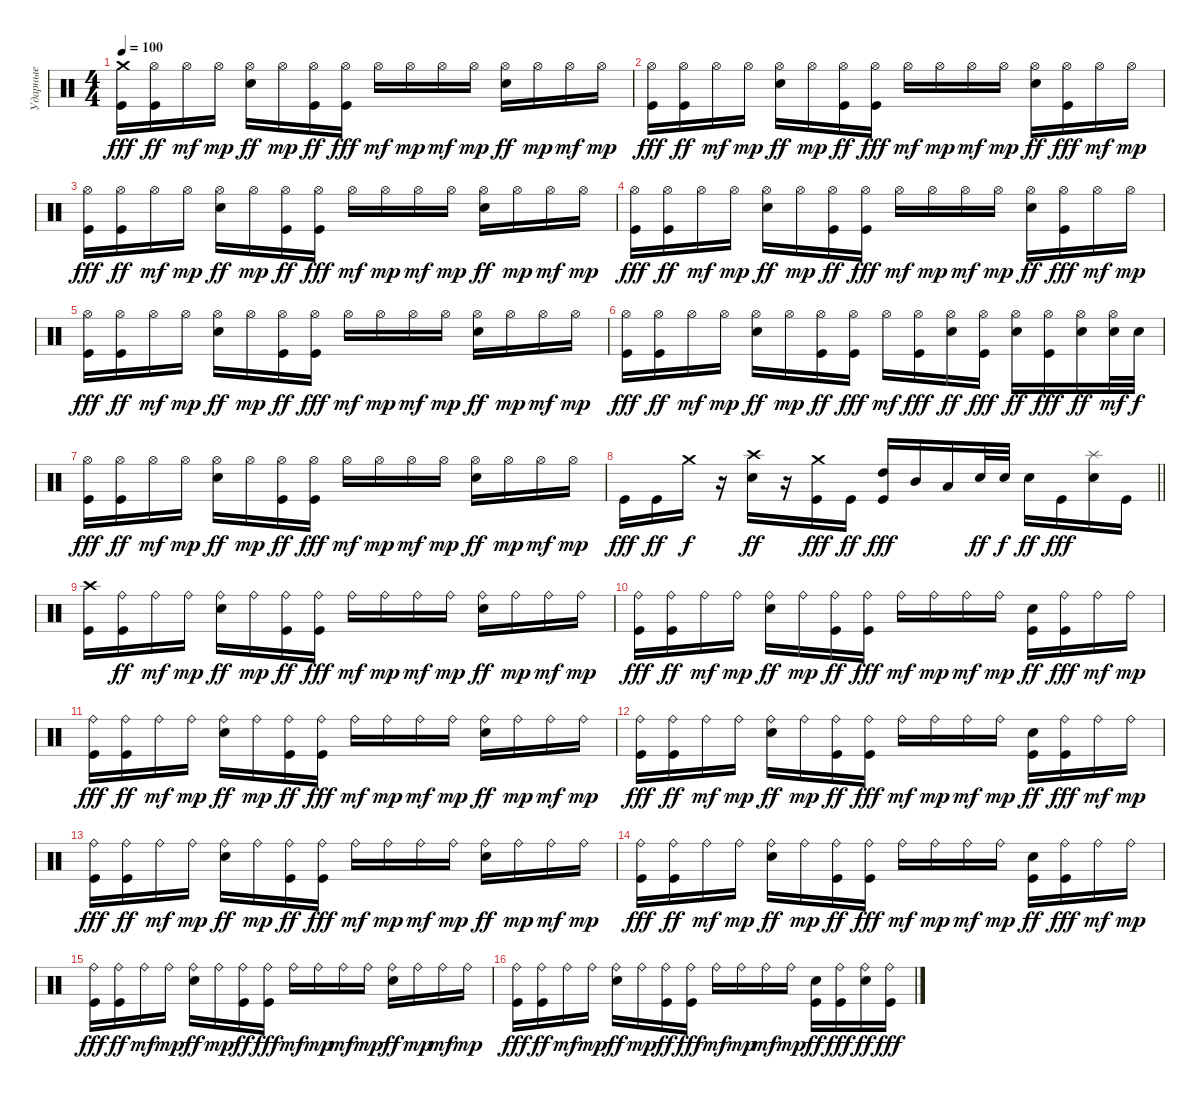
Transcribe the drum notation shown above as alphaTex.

\track ("Ударные" "Ударные") {instrument percussion}
\staff {score}
\articulation defaults
\ts (4 4)
\tempo 100
\clef neutral
\ks c
("Crash medium (hit)" "Kick (hit)").16{dy fff} ("Hi-Hat (open)" "Kick (hit)").16{dy ff} "Hi-Hat (open)".16{dy mf} "Hi-Hat (open)".16{dy mp} ("Hi-Hat (open)" "Electric Snare (hit)").16{dy ff} "Hi-Hat (open)".16{dy mp} ("Hi-Hat (open)" "Kick (hit)").16{dy ff} ("Hi-Hat (open)" "Kick (hit)").16{dy fff} "Hi-Hat (open)".16{dy mf} "Hi-Hat (open)".16{dy mp} "Hi-Hat (open)".16{dy mf} "Hi-Hat (open)".16{dy mp} ("Hi-Hat (open)" "Electric Snare (hit)").16{dy ff} "Hi-Hat (open)".16{dy mp} "Hi-Hat (open)".16{dy mf} "Hi-Hat (open)".16{dy mp} |
("Hi-Hat (open)" "Kick (hit)").16{dy fff} ("Hi-Hat (open)" "Kick (hit)").16{dy ff} "Hi-Hat (open)".16{dy mf} "Hi-Hat (open)".16{dy mp} ("Hi-Hat (open)" "Electric Snare (hit)").16{dy ff} "Hi-Hat (open)".16{dy mp} ("Hi-Hat (open)" "Kick (hit)").16{dy ff} ("Hi-Hat (open)" "Kick (hit)").16{dy fff} "Hi-Hat (open)".16{dy mf} "Hi-Hat (open)".16{dy mp} "Hi-Hat (open)".16{dy mf} "Hi-Hat (open)".16{dy mp} ("Hi-Hat (open)" "Electric Snare (hit)").16{dy ff} ("Hi-Hat (open)" "Kick (hit)").16{dy fff} "Hi-Hat (open)".16{dy mf} "Hi-Hat (open)".16{dy mp} |
("Hi-Hat (open)" "Kick (hit)").16{dy fff} ("Hi-Hat (open)" "Kick (hit)").16{dy ff} "Hi-Hat (open)".16{dy mf} "Hi-Hat (open)".16{dy mp} ("Hi-Hat (open)" "Electric Snare (hit)").16{dy ff} "Hi-Hat (open)".16{dy mp} ("Hi-Hat (open)" "Kick (hit)").16{dy ff} ("Hi-Hat (open)" "Kick (hit)").16{dy fff} "Hi-Hat (open)".16{dy mf} "Hi-Hat (open)".16{dy mp} "Hi-Hat (open)".16{dy mf} "Hi-Hat (open)".16{dy mp} ("Hi-Hat (open)" "Electric Snare (hit)").16{dy ff} "Hi-Hat (open)".16{dy mp} "Hi-Hat (open)".16{dy mf} "Hi-Hat (open)".16{dy mp} |
("Hi-Hat (open)" "Kick (hit)").16{dy fff} ("Hi-Hat (open)" "Kick (hit)").16{dy ff} "Hi-Hat (open)".16{dy mf} "Hi-Hat (open)".16{dy mp} ("Hi-Hat (open)" "Electric Snare (hit)").16{dy ff} "Hi-Hat (open)".16{dy mp} ("Hi-Hat (open)" "Kick (hit)").16{dy ff} ("Hi-Hat (open)" "Kick (hit)").16{dy fff} "Hi-Hat (open)".16{dy mf} "Hi-Hat (open)".16{dy mp} "Hi-Hat (open)".16{dy mf} "Hi-Hat (open)".16{dy mp} ("Hi-Hat (open)" "Electric Snare (hit)").16{dy ff} ("Hi-Hat (open)" "Kick (hit)").16{dy fff} "Hi-Hat (open)".16{dy mf} "Hi-Hat (open)".16{dy mp} |
("Hi-Hat (open)" "Kick (hit)").16{dy fff} ("Hi-Hat (open)" "Kick (hit)").16{dy ff} "Hi-Hat (open)".16{dy mf} "Hi-Hat (open)".16{dy mp} ("Hi-Hat (open)" "Electric Snare (hit)").16{dy ff} "Hi-Hat (open)".16{dy mp} ("Hi-Hat (open)" "Kick (hit)").16{dy ff} ("Hi-Hat (open)" "Kick (hit)").16{dy fff} "Hi-Hat (open)".16{dy mf} "Hi-Hat (open)".16{dy mp} "Hi-Hat (open)".16{dy mf} "Hi-Hat (open)".16{dy mp} ("Hi-Hat (open)" "Electric Snare (hit)").16{dy ff} "Hi-Hat (open)".16{dy mp} "Hi-Hat (open)".16{dy mf} "Hi-Hat (open)".16{dy mp} |
("Hi-Hat (open)" "Kick (hit)").16{dy fff} ("Hi-Hat (open)" "Kick (hit)").16{dy ff} "Hi-Hat (open)".16{dy mf} "Hi-Hat (open)".16{dy mp} ("Hi-Hat (open)" "Electric Snare (hit)").16{dy ff} "Hi-Hat (open)".16{dy mp} ("Hi-Hat (open)" "Kick (hit)").16{dy ff} ("Hi-Hat (open)" "Kick (hit)").16{dy fff} "Hi-Hat (open)".16{dy mf} ("Hi-Hat (open)" "Kick (hit)").16{dy fff} ("Hi-Hat (open)" "Electric Snare (hit)").16{dy ff} ("Hi-Hat (open)" "Kick (hit)").16{dy fff} ("Hi-Hat (open)" "Electric Snare (hit)").16{dy ff} ("Hi-Hat (open)" "Kick (hit)").16{dy fff} ("Hi-Hat (open)" "Electric Snare (hit)").16{dy ff} ("Hi-Hat (open)" "Electric Snare (hit)").32{dy mf} "Electric Snare (hit)".32{dy f} |
("Hi-Hat (open)" "Kick (hit)").16{dy fff} ("Hi-Hat (open)" "Kick (hit)").16{dy ff} "Hi-Hat (open)".16{dy mf} "Hi-Hat (open)".16{dy mp} ("Hi-Hat (open)" "Electric Snare (hit)").16{dy ff} "Hi-Hat (open)".16{dy mp} ("Hi-Hat (open)" "Kick (hit)").16{dy ff} ("Hi-Hat (open)" "Kick (hit)").16{dy fff} "Hi-Hat (open)".16{dy mf} "Hi-Hat (open)".16{dy mp} "Hi-Hat (open)".16{dy mf} "Hi-Hat (open)".16{dy mp} ("Hi-Hat (open)" "Electric Snare (hit)").16{dy ff} "Hi-Hat (open)".16{dy mp} "Hi-Hat (open)".16{dy mf} "Hi-Hat (open)".16{dy mp} |
\barLineRight lightlight "Kick (hit)".16{dy fff} "Kick (hit)".16{dy ff} "Crash medium (hit)".16{dy f}
r.16 ("Crash high (hit)" "Electric Snare (hit)").16{dy ff} r.16 ("Crash medium (hit)" "Kick (hit)").16{dy fff} "Kick (hit)".16{dy ff} ("High Tom (hit)" "Kick (hit)").16{dy fff} "Mid Tom (hit)".16 "Low Tom (hit)".16 "Electric Snare (hit)".32{dy ff} "Electric Snare (hit)".32{dy f} "Electric Snare (hit)".16{dy ff} "Kick (hit)".16{dy fff} ("Splash (hit)" "Electric Snare (hit)").16 "Kick (hit)".16 |
\section ("" "")
("Crash high (hit)" "Kick (hit)").16 ("Ride (bell)" "Kick (hit)").16{dy ff} "Ride (bell)".16{dy mf} "Ride (bell)".16{dy mp} ("Ride (bell)" "Electric Snare (hit)").16{dy ff} "Ride (bell)".16{dy mp} ("Ride (bell)" "Kick (hit)").16{dy ff} ("Ride (bell)" "Kick (hit)").16{dy fff} "Ride (bell)".16{dy mf} "Ride (bell)".16{dy mp} "Ride (bell)".16{dy mf} "Ride (bell)".16{dy mp} ("Ride (bell)" "Electric Snare (hit)").16{dy ff} "Ride (bell)".16{dy mp} "Ride (bell)".16{dy mf} "Ride (bell)".16{dy mp} |
("Ride (bell)" "Kick (hit)").16{dy fff} ("Ride (bell)" "Kick (hit)").16{dy ff} "Ride (bell)".16{dy mf} "Ride (bell)".16{dy mp} ("Ride (bell)" "Electric Snare (hit)").16{dy ff} "Ride (bell)".16{dy mp} ("Ride (bell)" "Kick (hit)").16{dy ff} ("Ride (bell)" "Kick (hit)").16{dy fff} "Ride (bell)".16{dy mf} "Ride (bell)".16{dy mp} "Ride (bell)".16{dy mf} "Ride (bell)".16{dy mp} ("Kick (hit)" "Electric Snare (hit)").16{dy ff} ("Ride (bell)" "Kick (hit)").16{dy fff} "Ride (bell)".16{dy mf} "Ride (bell)".16{dy mp} |
("Ride (bell)" "Kick (hit)").16{dy fff} ("Ride (bell)" "Kick (hit)").16{dy ff} "Ride (bell)".16{dy mf} "Ride (bell)".16{dy mp} ("Ride (bell)" "Electric Snare (hit)").16{dy ff} "Ride (bell)".16{dy mp} ("Ride (bell)" "Kick (hit)").16{dy ff} ("Ride (bell)" "Kick (hit)").16{dy fff} "Ride (bell)".16{dy mf} "Ride (bell)".16{dy mp} "Ride (bell)".16{dy mf} "Ride (bell)".16{dy mp} ("Ride (bell)" "Electric Snare (hit)").16{dy ff} "Ride (bell)".16{dy mp} "Ride (bell)".16{dy mf} "Ride (bell)".16{dy mp} |
("Ride (bell)" "Kick (hit)").16{dy fff} ("Ride (bell)" "Kick (hit)").16{dy ff} "Ride (bell)".16{dy mf} "Ride (bell)".16{dy mp} ("Ride (bell)" "Electric Snare (hit)").16{dy ff} "Ride (bell)".16{dy mp} ("Ride (bell)" "Kick (hit)").16{dy ff} ("Ride (bell)" "Kick (hit)").16{dy fff} "Ride (bell)".16{dy mf} "Ride (bell)".16{dy mp} "Ride (bell)".16{dy mf} "Ride (bell)".16{dy mp} ("Kick (hit)" "Electric Snare (hit)").16{dy ff} ("Ride (bell)" "Kick (hit)").16{dy fff} "Ride (bell)".16{dy mf} "Ride (bell)".16{dy mp} |
("Ride (bell)" "Kick (hit)").16{dy fff} ("Ride (bell)" "Kick (hit)").16{dy ff} "Ride (bell)".16{dy mf} "Ride (bell)".16{dy mp} ("Ride (bell)" "Electric Snare (hit)").16{dy ff} "Ride (bell)".16{dy mp} ("Ride (bell)" "Kick (hit)").16{dy ff} ("Ride (bell)" "Kick (hit)").16{dy fff} "Ride (bell)".16{dy mf} "Ride (bell)".16{dy mp} "Ride (bell)".16{dy mf} "Ride (bell)".16{dy mp} ("Ride (bell)" "Electric Snare (hit)").16{dy ff} "Ride (bell)".16{dy mp} "Ride (bell)".16{dy mf} "Ride (bell)".16{dy mp} |
("Ride (bell)" "Kick (hit)").16{dy fff} ("Ride (bell)" "Kick (hit)").16{dy ff} "Ride (bell)".16{dy mf} "Ride (bell)".16{dy mp} ("Ride (bell)" "Electric Snare (hit)").16{dy ff} "Ride (bell)".16{dy mp} ("Ride (bell)" "Kick (hit)").16{dy ff} ("Ride (bell)" "Kick (hit)").16{dy fff} "Ride (bell)".16{dy mf} "Ride (bell)".16{dy mp} "Ride (bell)".16{dy mf} "Ride (bell)".16{dy mp} ("Kick (hit)" "Electric Snare (hit)").16{dy ff} ("Ride (bell)" "Kick (hit)").16{dy fff} "Ride (bell)".16{dy mf} "Ride (bell)".16{dy mp} |
("Ride (bell)" "Kick (hit)").16{dy fff} ("Ride (bell)" "Kick (hit)").16{dy ff} "Ride (bell)".16{dy mf} "Ride (bell)".16{dy mp} ("Ride (bell)" "Electric Snare (hit)").16{dy ff} "Ride (bell)".16{dy mp} ("Ride (bell)" "Kick (hit)").16{dy ff} ("Ride (bell)" "Kick (hit)").16{dy fff} "Ride (bell)".16{dy mf} "Ride (bell)".16{dy mp} "Ride (bell)".16{dy mf} "Ride (bell)".16{dy mp} ("Ride (bell)" "Electric Snare (hit)").16{dy ff} "Ride (bell)".16{dy mp} "Ride (bell)".16{dy mf} "Ride (bell)".16{dy mp} |
("Ride (bell)" "Kick (hit)").16{dy fff} ("Ride (bell)" "Kick (hit)").16{dy ff} "Ride (bell)".16{dy mf} "Ride (bell)".16{dy mp} ("Ride (bell)" "Electric Snare (hit)").16{dy ff} "Ride (bell)".16{dy mp} ("Ride (bell)" "Kick (hit)").16{dy ff} ("Ride (bell)" "Kick (hit)").16{dy fff} "Ride (bell)".16{dy mf} "Ride (bell)".16{dy mp} "Ride (bell)".16{dy mf} "Ride (bell)".16{dy mp} ("Kick (hit)" "Electric Snare (hit)").16{dy ff} ("Ride (bell)" "Kick (hit)").16{dy fff} ("Ride (bell)" "Electric Snare (hit)").16{dy ff} ("Ride (bell)" "Kick (hit)").16{dy fff}
